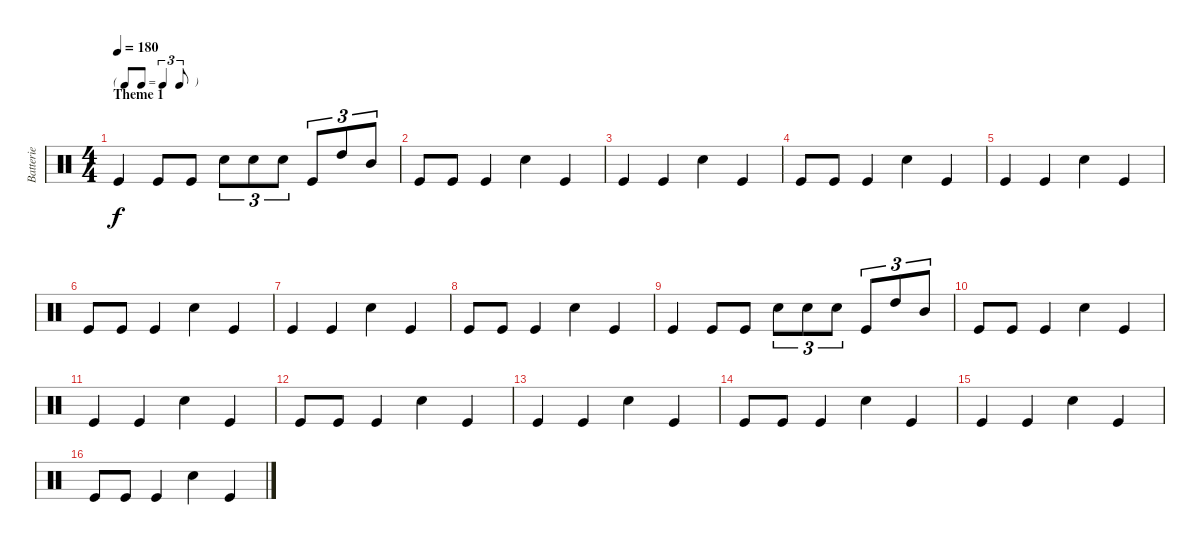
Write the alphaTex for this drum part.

\track ("Batterie" "Batterie") {instrument percussion}
\staff {score}
\articulation defaults
\ts (4 4)
\tf triplet8th
\section ("" "Theme 1")
\tempo 180
\clef neutral
\ks c "Kick (hit)".4{dy f} "Kick (hit)".8 "Kick (hit)".8 "Electric Snare (hit)".8{tu (3 2)} "Electric Snare (hit)".8{tu (3 2)} "Electric Snare (hit)".8{tu (3 2)} "Kick (hit)".8{tu (3 2)} "High Tom (hit)".8{tu (3 2)} "Mid Tom (hit)".8{tu (3 2)}
|
"Kick (hit)".8 "Kick (hit)".8 "Kick (hit)".4 "Electric Snare (hit)".4 "Kick (hit)".4 |
"Kick (hit)".4 "Kick (hit)".4 "Electric Snare (hit)".4 "Kick (hit)".4 |
"Kick (hit)".8 "Kick (hit)".8 "Kick (hit)".4 "Electric Snare (hit)".4 "Kick (hit)".4 |
"Kick (hit)".4 "Kick (hit)".4 "Electric Snare (hit)".4 "Kick (hit)".4 |
"Kick (hit)".8 "Kick (hit)".8 "Kick (hit)".4 "Electric Snare (hit)".4 "Kick (hit)".4 |
"Kick (hit)".4 "Kick (hit)".4 "Electric Snare (hit)".4 "Kick (hit)".4 |
"Kick (hit)".8 "Kick (hit)".8 "Kick (hit)".4 "Electric Snare (hit)".4 "Kick (hit)".4 |
"Kick (hit)".4 "Kick (hit)".8 "Kick (hit)".8 "Electric Snare (hit)".8{tu (3 2)} "Electric Snare (hit)".8{tu (3 2)} "Electric Snare (hit)".8{tu (3 2)} "Kick (hit)".8{tu (3 2)} "High Tom (hit)".8{tu (3 2)} "Mid Tom (hit)".8{tu (3 2)} |
"Kick (hit)".8 "Kick (hit)".8 "Kick (hit)".4 "Electric Snare (hit)".4 "Kick (hit)".4 |
"Kick (hit)".4 "Kick (hit)".4 "Electric Snare (hit)".4 "Kick (hit)".4 |
"Kick (hit)".8 "Kick (hit)".8 "Kick (hit)".4 "Electric Snare (hit)".4 "Kick (hit)".4 |
"Kick (hit)".4 "Kick (hit)".4 "Electric Snare (hit)".4 "Kick (hit)".4 |
"Kick (hit)".8 "Kick (hit)".8 "Kick (hit)".4 "Electric Snare (hit)".4 "Kick (hit)".4 |
"Kick (hit)".4 "Kick (hit)".4 "Electric Snare (hit)".4 "Kick (hit)".4 |
"Kick (hit)".8 "Kick (hit)".8 "Kick (hit)".4 "Electric Snare (hit)".4 "Kick (hit)".4
